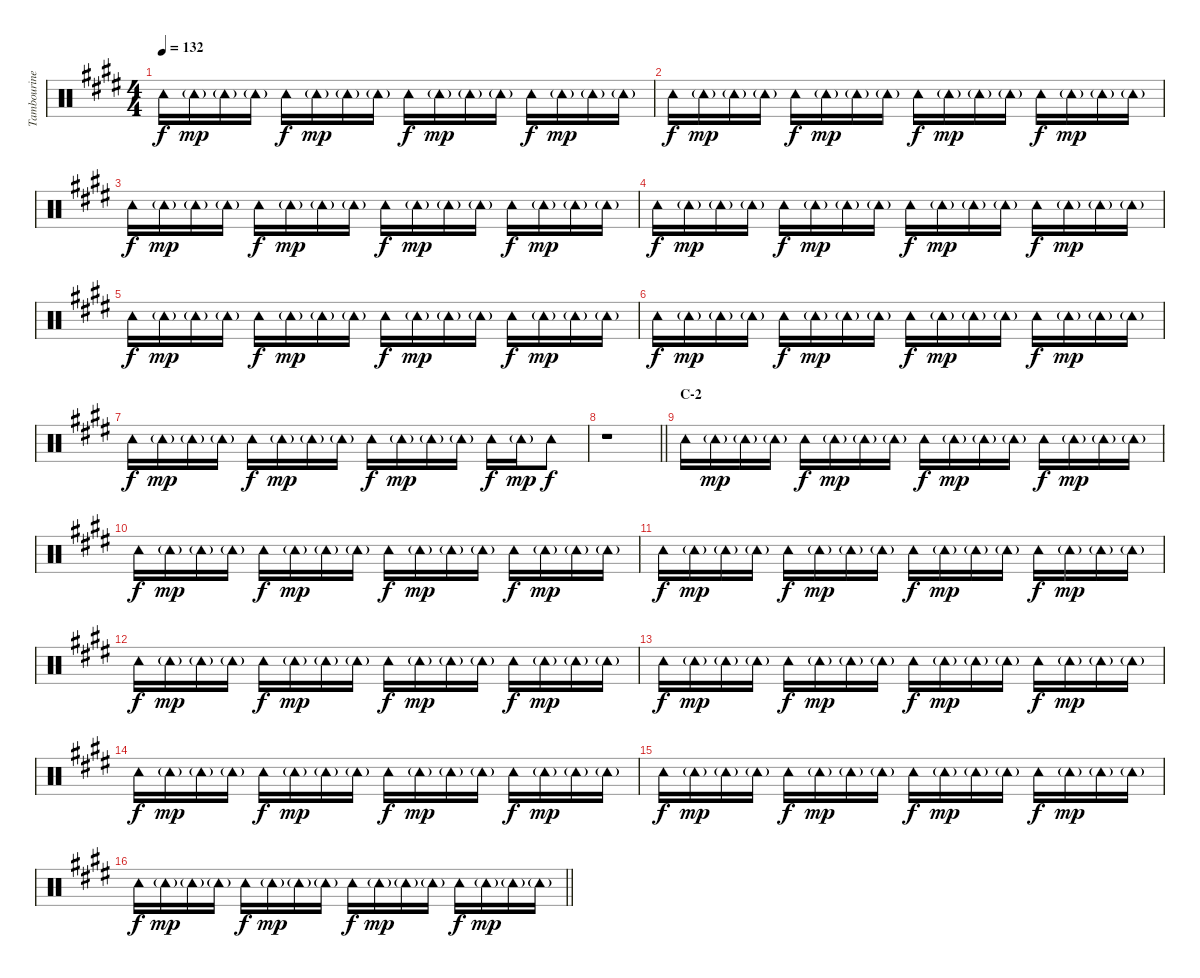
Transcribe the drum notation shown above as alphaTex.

\track ("Tambourine" "Tambourine") {instrument percussion}
\staff {score}
\articulation defaults
\ts (4 4)
\tempo 132
\clef neutral
\ks e "Tambourine (hit)".16{dy f} "Tambourine (hit)"{g}.16{dy mp} "Tambourine (hit)"{g}.16 "Tambourine (hit)"{g}.16 "Tambourine (hit)".16{dy f} "Tambourine (hit)"{g}.16{dy mp} "Tambourine (hit)"{g}.16 "Tambourine (hit)"{g}.16 "Tambourine (hit)".16{dy f} "Tambourine (hit)"{g}.16{dy mp} "Tambourine (hit)"{g}.16 "Tambourine (hit)"{g}.16 "Tambourine (hit)".16{dy f} "Tambourine (hit)"{g}.16{dy mp} "Tambourine (hit)"{g}.16 "Tambourine (hit)"{g}.16
|
"Tambourine (hit)".16{dy f} "Tambourine (hit)"{g}.16{dy mp} "Tambourine (hit)"{g}.16 "Tambourine (hit)"{g}.16 "Tambourine (hit)".16{dy f} "Tambourine (hit)"{g}.16{dy mp} "Tambourine (hit)"{g}.16 "Tambourine (hit)"{g}.16 "Tambourine (hit)".16{dy f} "Tambourine (hit)"{g}.16{dy mp} "Tambourine (hit)"{g}.16 "Tambourine (hit)"{g}.16 "Tambourine (hit)".16{dy f} "Tambourine (hit)"{g}.16{dy mp} "Tambourine (hit)"{g}.16 "Tambourine (hit)"{g}.16 |
"Tambourine (hit)".16{dy f} "Tambourine (hit)"{g}.16{dy mp} "Tambourine (hit)"{g}.16 "Tambourine (hit)"{g}.16 "Tambourine (hit)".16{dy f} "Tambourine (hit)"{g}.16{dy mp} "Tambourine (hit)"{g}.16 "Tambourine (hit)"{g}.16 "Tambourine (hit)".16{dy f} "Tambourine (hit)"{g}.16{dy mp} "Tambourine (hit)"{g}.16 "Tambourine (hit)"{g}.16 "Tambourine (hit)".16{dy f} "Tambourine (hit)"{g}.16{dy mp} "Tambourine (hit)"{g}.16 "Tambourine (hit)"{g}.16 |
"Tambourine (hit)".16{dy f} "Tambourine (hit)"{g}.16{dy mp} "Tambourine (hit)"{g}.16 "Tambourine (hit)"{g}.16 "Tambourine (hit)".16{dy f} "Tambourine (hit)"{g}.16{dy mp} "Tambourine (hit)"{g}.16 "Tambourine (hit)"{g}.16 "Tambourine (hit)".16{dy f} "Tambourine (hit)"{g}.16{dy mp} "Tambourine (hit)"{g}.16 "Tambourine (hit)"{g}.16 "Tambourine (hit)".16{dy f} "Tambourine (hit)"{g}.16{dy mp} "Tambourine (hit)"{g}.16 "Tambourine (hit)"{g}.16 |
"Tambourine (hit)".16{dy f} "Tambourine (hit)"{g}.16{dy mp} "Tambourine (hit)"{g}.16 "Tambourine (hit)"{g}.16 "Tambourine (hit)".16{dy f} "Tambourine (hit)"{g}.16{dy mp} "Tambourine (hit)"{g}.16 "Tambourine (hit)"{g}.16 "Tambourine (hit)".16{dy f} "Tambourine (hit)"{g}.16{dy mp} "Tambourine (hit)"{g}.16 "Tambourine (hit)"{g}.16 "Tambourine (hit)".16{dy f} "Tambourine (hit)"{g}.16{dy mp} "Tambourine (hit)"{g}.16 "Tambourine (hit)"{g}.16 |
"Tambourine (hit)".16{dy f} "Tambourine (hit)"{g}.16{dy mp} "Tambourine (hit)"{g}.16 "Tambourine (hit)"{g}.16 "Tambourine (hit)".16{dy f} "Tambourine (hit)"{g}.16{dy mp} "Tambourine (hit)"{g}.16 "Tambourine (hit)"{g}.16 "Tambourine (hit)".16{dy f} "Tambourine (hit)"{g}.16{dy mp} "Tambourine (hit)"{g}.16 "Tambourine (hit)"{g}.16 "Tambourine (hit)".16{dy f} "Tambourine (hit)"{g}.16{dy mp} "Tambourine (hit)"{g}.16 "Tambourine (hit)"{g}.16 |
"Tambourine (hit)".16{dy f} "Tambourine (hit)"{g}.16{dy mp} "Tambourine (hit)"{g}.16 "Tambourine (hit)"{g}.16 "Tambourine (hit)".16{dy f} "Tambourine (hit)"{g}.16{dy mp} "Tambourine (hit)"{g}.16 "Tambourine (hit)"{g}.16 "Tambourine (hit)".16{dy f} "Tambourine (hit)"{g}.16{dy mp} "Tambourine (hit)"{g}.16 "Tambourine (hit)"{g}.16 "Tambourine (hit)".16{dy f} "Tambourine (hit)"{g}.16{dy mp} "Tambourine (hit)".8{dy f} |
\barLineRight lightlight
r.1 |
\section ("" "C-2")
"Tambourine (hit)".16 "Tambourine (hit)"{g}.16{dy mp} "Tambourine (hit)"{g}.16 "Tambourine (hit)"{g}.16 "Tambourine (hit)".16{dy f} "Tambourine (hit)"{g}.16{dy mp} "Tambourine (hit)"{g}.16 "Tambourine (hit)"{g}.16 "Tambourine (hit)".16{dy f} "Tambourine (hit)"{g}.16{dy mp} "Tambourine (hit)"{g}.16 "Tambourine (hit)"{g}.16 "Tambourine (hit)".16{dy f} "Tambourine (hit)"{g}.16{dy mp} "Tambourine (hit)"{g}.16 "Tambourine (hit)"{g}.16 |
"Tambourine (hit)".16{dy f} "Tambourine (hit)"{g}.16{dy mp} "Tambourine (hit)"{g}.16 "Tambourine (hit)"{g}.16 "Tambourine (hit)".16{dy f} "Tambourine (hit)"{g}.16{dy mp} "Tambourine (hit)"{g}.16 "Tambourine (hit)"{g}.16 "Tambourine (hit)".16{dy f} "Tambourine (hit)"{g}.16{dy mp} "Tambourine (hit)"{g}.16 "Tambourine (hit)"{g}.16 "Tambourine (hit)".16{dy f} "Tambourine (hit)"{g}.16{dy mp} "Tambourine (hit)"{g}.16 "Tambourine (hit)"{g}.16 |
"Tambourine (hit)".16{dy f} "Tambourine (hit)"{g}.16{dy mp} "Tambourine (hit)"{g}.16 "Tambourine (hit)"{g}.16 "Tambourine (hit)".16{dy f} "Tambourine (hit)"{g}.16{dy mp} "Tambourine (hit)"{g}.16 "Tambourine (hit)"{g}.16 "Tambourine (hit)".16{dy f} "Tambourine (hit)"{g}.16{dy mp} "Tambourine (hit)"{g}.16 "Tambourine (hit)"{g}.16 "Tambourine (hit)".16{dy f} "Tambourine (hit)"{g}.16{dy mp} "Tambourine (hit)"{g}.16 "Tambourine (hit)"{g}.16 |
"Tambourine (hit)".16{dy f} "Tambourine (hit)"{g}.16{dy mp} "Tambourine (hit)"{g}.16 "Tambourine (hit)"{g}.16 "Tambourine (hit)".16{dy f} "Tambourine (hit)"{g}.16{dy mp} "Tambourine (hit)"{g}.16 "Tambourine (hit)"{g}.16 "Tambourine (hit)".16{dy f} "Tambourine (hit)"{g}.16{dy mp} "Tambourine (hit)"{g}.16 "Tambourine (hit)"{g}.16 "Tambourine (hit)".16{dy f} "Tambourine (hit)"{g}.16{dy mp} "Tambourine (hit)"{g}.16 "Tambourine (hit)"{g}.16 |
"Tambourine (hit)".16{dy f} "Tambourine (hit)"{g}.16{dy mp} "Tambourine (hit)"{g}.16 "Tambourine (hit)"{g}.16 "Tambourine (hit)".16{dy f} "Tambourine (hit)"{g}.16{dy mp} "Tambourine (hit)"{g}.16 "Tambourine (hit)"{g}.16 "Tambourine (hit)".16{dy f} "Tambourine (hit)"{g}.16{dy mp} "Tambourine (hit)"{g}.16 "Tambourine (hit)"{g}.16 "Tambourine (hit)".16{dy f} "Tambourine (hit)"{g}.16{dy mp} "Tambourine (hit)"{g}.16 "Tambourine (hit)"{g}.16 |
"Tambourine (hit)".16{dy f} "Tambourine (hit)"{g}.16{dy mp} "Tambourine (hit)"{g}.16 "Tambourine (hit)"{g}.16 "Tambourine (hit)".16{dy f} "Tambourine (hit)"{g}.16{dy mp} "Tambourine (hit)"{g}.16 "Tambourine (hit)"{g}.16 "Tambourine (hit)".16{dy f} "Tambourine (hit)"{g}.16{dy mp} "Tambourine (hit)"{g}.16 "Tambourine (hit)"{g}.16 "Tambourine (hit)".16{dy f} "Tambourine (hit)"{g}.16{dy mp} "Tambourine (hit)"{g}.16 "Tambourine (hit)"{g}.16 |
"Tambourine (hit)".16{dy f} "Tambourine (hit)"{g}.16{dy mp} "Tambourine (hit)"{g}.16 "Tambourine (hit)"{g}.16 "Tambourine (hit)".16{dy f} "Tambourine (hit)"{g}.16{dy mp} "Tambourine (hit)"{g}.16 "Tambourine (hit)"{g}.16 "Tambourine (hit)".16{dy f} "Tambourine (hit)"{g}.16{dy mp} "Tambourine (hit)"{g}.16 "Tambourine (hit)"{g}.16 "Tambourine (hit)".16{dy f} "Tambourine (hit)"{g}.16{dy mp} "Tambourine (hit)"{g}.16 "Tambourine (hit)"{g}.16 |
\barLineRight lightlight "Tambourine (hit)".16{dy f} "Tambourine (hit)"{g}.16{dy mp} "Tambourine (hit)"{g}.16 "Tambourine (hit)"{g}.16 "Tambourine (hit)".16{dy f} "Tambourine (hit)"{g}.16{dy mp} "Tambourine (hit)"{g}.16 "Tambourine (hit)"{g}.16 "Tambourine (hit)".16{dy f} "Tambourine (hit)"{g}.16{dy mp} "Tambourine (hit)"{g}.16 "Tambourine (hit)"{g}.16 "Tambourine (hit)".16{dy f} "Tambourine (hit)"{g}.16{dy mp} "Tambourine (hit)"{g}.16 "Tambourine (hit)"{g}.16
